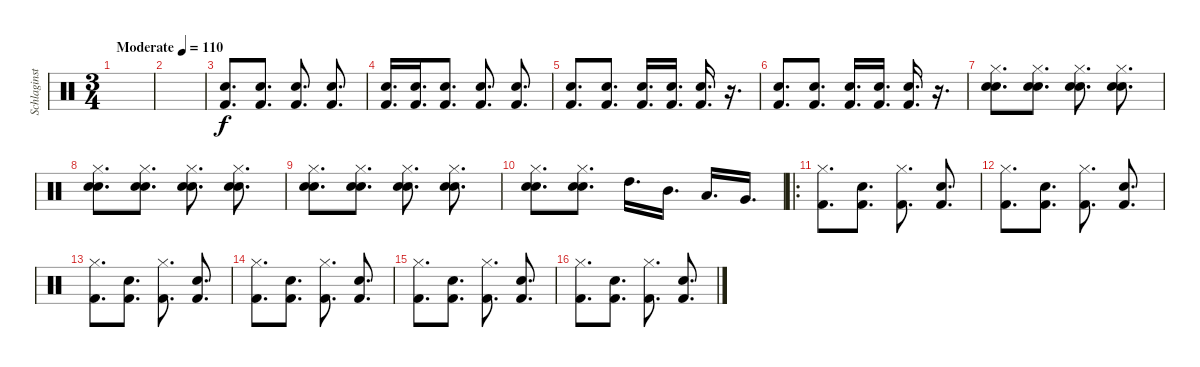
\track ("Schlaginstrumente - Auswahl" "Schlaginst") {instrument percussion}
\staff {score}
\articulation defaults
\ts (3 4)
\tempo (110 "Moderate")
\clef neutral
\ks c
|
|
("Electric Snare (hit)" "Kick (hit) 2").8{d} ("Snare (hit) 2" "Kick (hit) 2").8{d} ("Electric Snare (hit)" "Kick (hit) 2").8{d} ("Snare (hit) 2" "Kick (hit) 2").8{d} |
("Electric Snare (hit)" "Kick (hit) 2").16{d} ("Electric Snare (hit)" "Kick (hit) 2").16{d} ("Snare (hit) 2" "Kick (hit) 2").8{d} ("Electric Snare (hit)" "Kick (hit) 2").8{d} ("Snare (hit) 2" "Kick (hit) 2").8{d} |
("Electric Snare (hit)" "Kick (hit) 2").8{d} ("Snare (hit) 2" "Kick (hit) 2").8{d} ("Electric Snare (hit)" "Kick (hit) 2").16{d} ("Electric Snare (hit)" "Kick (hit) 2").16{d} ("Snare (hit) 2" "Kick (hit) 2").16{d} r.16{d} |
("Electric Snare (hit)" "Kick (hit) 2").8{d} ("Snare (hit) 2" "Kick (hit) 2").8{d} ("Electric Snare (hit)" "Kick (hit) 2").16{d} ("Electric Snare (hit)" "Kick (hit) 2").16{d} ("Snare (hit) 2" "Kick (hit) 2").16{d} r.16{d} |
("Hi-Hat (closed)" "Snare (hit) 2" "Hand Clap (hit)").8{d} ("Hi-Hat (closed)" "Snare (hit) 2" "Hand Clap (hit)").8{d} ("Hi-Hat (closed)" "Snare (hit) 2" "Hand Clap (hit)").8{d} ("Hi-Hat (closed)" "Snare (hit) 2" "Hand Clap (hit)").8{d} |
("Hi-Hat (closed)" "Snare (hit) 2" "Hand Clap (hit)").8{d} ("Hi-Hat (closed)" "Snare (hit) 2" "Hand Clap (hit)").8{d} ("Hi-Hat (closed)" "Snare (hit) 2" "Hand Clap (hit)").8{d} ("Hi-Hat (closed)" "Snare (hit) 2" "Hand Clap (hit)").8{d} |
("Hi-Hat (closed)" "Snare (hit) 2" "Hand Clap (hit)").8{d} ("Hi-Hat (closed)" "Snare (hit) 2" "Hand Clap (hit)").8{d} ("Hi-Hat (closed)" "Snare (hit) 2" "Hand Clap (hit)").8{d} ("Hi-Hat (closed)" "Snare (hit) 2" "Hand Clap (hit)").8{d} |
("Hi-Hat (closed)" "Snare (hit) 2" "Hand Clap (hit)").8{d} ("Hi-Hat (closed)" "Snare (hit) 2" "Hand Clap (hit)").8{d} "High Tom (hit)".16{d} "Mid Tom (hit)".16{d} "Low Tom (hit)".16{d} "Very Low Tom (hit)".16{d} |
\ro
("Hi-Hat (closed)" "Kick (hit) 2").8{d} ("Electric Snare (hit)" "Kick (hit) 2").8{d} ("Hi-Hat (closed)" "Kick (hit) 2").8{d} ("Electric Snare (hit)" "Kick (hit) 2").8{d} |
("Hi-Hat (closed)" "Kick (hit) 2").8{d} ("Electric Snare (hit)" "Kick (hit) 2").8{d} ("Hi-Hat (closed)" "Kick (hit) 2").8{d} ("Electric Snare (hit)" "Kick (hit) 2").8{d} |
("Hi-Hat (closed)" "Kick (hit) 2").8{d} ("Electric Snare (hit)" "Kick (hit) 2").8{d} ("Hi-Hat (closed)" "Kick (hit) 2").8{d} ("Electric Snare (hit)" "Kick (hit) 2").8{d} |
("Hi-Hat (closed)" "Kick (hit) 2").8{d} ("Electric Snare (hit)" "Kick (hit) 2").8{d} ("Hi-Hat (closed)" "Kick (hit) 2").8{d} ("Electric Snare (hit)" "Kick (hit) 2").8{d} |
("Hi-Hat (closed)" "Kick (hit) 2").8{d} ("Electric Snare (hit)" "Kick (hit) 2").8{d} ("Hi-Hat (closed)" "Kick (hit) 2").8{d} ("Electric Snare (hit)" "Kick (hit) 2").8{d} |
("Hi-Hat (closed)" "Kick (hit) 2").8{d} ("Electric Snare (hit)" "Kick (hit) 2").8{d} ("Hi-Hat (closed)" "Kick (hit) 2").8{d} ("Electric Snare (hit)" "Kick (hit) 2").8{d}
